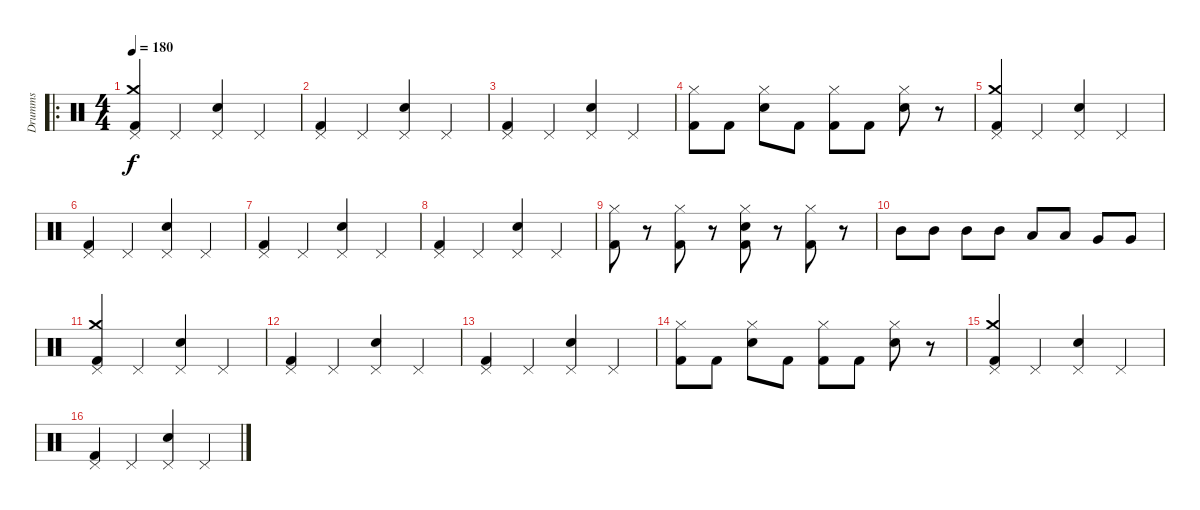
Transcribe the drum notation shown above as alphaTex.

\track ("Drumms" "Drumms") {instrument percussion}
\staff {score}
\articulation defaults
\ro
\ts (4 4)
\tempo 180
\clef neutral
\ks c
("Kick (hit) 2" "Crash medium (hit)" "Pedal Hi-Hat (hit)").4{dy f} "Pedal Hi-Hat (hit)".4 ("Snare (hit) 2" "Pedal Hi-Hat (hit)").4 "Pedal Hi-Hat (hit)".4 |
("Kick (hit) 2" "Pedal Hi-Hat (hit)").4 "Pedal Hi-Hat (hit)".4 ("Snare (hit) 2" "Pedal Hi-Hat (hit)").4 "Pedal Hi-Hat (hit)".4 |
("Kick (hit) 2" "Pedal Hi-Hat (hit)").4 "Pedal Hi-Hat (hit)".4 ("Snare (hit) 2" "Pedal Hi-Hat (hit)").4 "Pedal Hi-Hat (hit)".4 |
("Kick (hit) 2" "Hi-Hat (closed)").8 "Kick (hit) 2".8 ("Snare (hit) 2" "Hi-Hat (closed)").8 "Kick (hit) 2".8 ("Kick (hit) 2" "Hi-Hat (closed)").8 "Kick (hit) 2".8 ("Snare (hit) 2" "Hi-Hat (closed)").8 r.8 |
("Kick (hit) 2" "Crash medium (hit)" "Pedal Hi-Hat (hit)").4 "Pedal Hi-Hat (hit)".4 ("Snare (hit) 2" "Pedal Hi-Hat (hit)").4 "Pedal Hi-Hat (hit)".4 |
("Kick (hit) 2" "Pedal Hi-Hat (hit)").4 "Pedal Hi-Hat (hit)".4 ("Snare (hit) 2" "Pedal Hi-Hat (hit)").4 "Pedal Hi-Hat (hit)".4 |
("Kick (hit) 2" "Pedal Hi-Hat (hit)").4 "Pedal Hi-Hat (hit)".4 ("Snare (hit) 2" "Pedal Hi-Hat (hit)").4 "Pedal Hi-Hat (hit)".4 |
("Kick (hit) 2" "Pedal Hi-Hat (hit)").4 "Pedal Hi-Hat (hit)".4 ("Snare (hit) 2" "Pedal Hi-Hat (hit)").4 "Pedal Hi-Hat (hit)".4 |
("Kick (hit) 2" "Hi-Hat (closed)").8 r.8 ("Kick (hit) 2" "Hi-Hat (closed)").8 r.8 ("Kick (hit) 2" "Snare (hit) 2" "Hi-Hat (closed)").8 r.8 ("Kick (hit) 2" "Hi-Hat (closed)").8 r.8 |
"Mid Tom (hit)".8 "Mid Tom (hit)".8 "Mid Tom (hit)".8 "Mid Tom (hit)".8 "Low Tom (hit)".8 "Low Tom (hit)".8 "Very Low Tom (hit)".8 "Very Low Tom (hit)".8 |
("Kick (hit) 2" "Crash medium (hit)" "Pedal Hi-Hat (hit)").4 "Pedal Hi-Hat (hit)".4 ("Snare (hit) 2" "Pedal Hi-Hat (hit)").4 "Pedal Hi-Hat (hit)".4 |
("Kick (hit) 2" "Pedal Hi-Hat (hit)").4 "Pedal Hi-Hat (hit)".4 ("Snare (hit) 2" "Pedal Hi-Hat (hit)").4 "Pedal Hi-Hat (hit)".4 |
("Kick (hit) 2" "Pedal Hi-Hat (hit)").4 "Pedal Hi-Hat (hit)".4 ("Snare (hit) 2" "Pedal Hi-Hat (hit)").4 "Pedal Hi-Hat (hit)".4 |
("Kick (hit) 2" "Hi-Hat (closed)").8 "Kick (hit) 2".8 ("Snare (hit) 2" "Hi-Hat (closed)").8 "Kick (hit) 2".8 ("Kick (hit) 2" "Hi-Hat (closed)").8 "Kick (hit) 2".8 ("Snare (hit) 2" "Hi-Hat (closed)").8 r.8 |
("Kick (hit) 2" "Crash medium (hit)" "Pedal Hi-Hat (hit)").4 "Pedal Hi-Hat (hit)".4 ("Snare (hit) 2" "Pedal Hi-Hat (hit)").4 "Pedal Hi-Hat (hit)".4 |
("Kick (hit) 2" "Pedal Hi-Hat (hit)").4 "Pedal Hi-Hat (hit)".4 ("Snare (hit) 2" "Pedal Hi-Hat (hit)").4 "Pedal Hi-Hat (hit)".4
